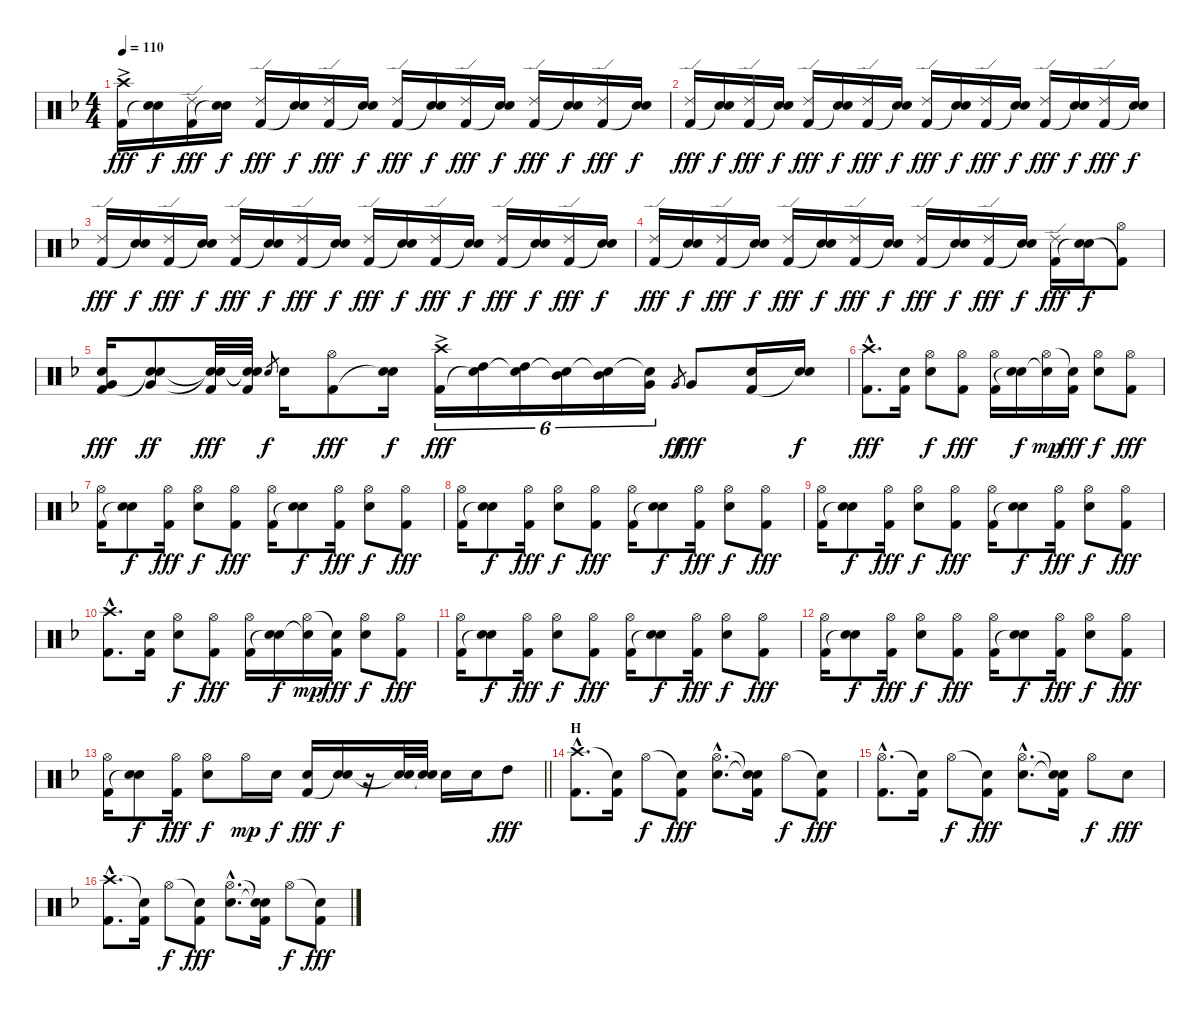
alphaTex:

\track "" {instrument percussion}
\staff {score}
\articulation defaults
\ts (4 4)
\tempo 110
\clef neutral
\ks dminor
("Crash high (hit)"{ac} "Kick (hit) 2").16{dy fff} ("Electric Snare (hit)" "Snare (hit)"{t}).16{dy f} ("Ride (edge) 2" "Kick (hit) 2").16{dy fff} ("Electric Snare (hit)" "Snare (hit)"{t}).16{dy f} ("Ride (edge) 2" "Kick (hit) 2").16{dy fff} ("Electric Snare (hit)" "Snare (hit)"{t}).16{dy f} ("Ride (edge) 2" "Kick (hit) 2").16{dy fff} ("Electric Snare (hit)" "Snare (hit)"{t}).16{dy f} ("Ride (edge) 2" "Kick (hit) 2").16{dy fff} ("Electric Snare (hit)" "Snare (hit)"{t}).16{dy f} ("Ride (edge) 2" "Kick (hit) 2").16{dy fff} ("Electric Snare (hit)" "Snare (hit)"{t}).16{dy f} ("Ride (edge) 2" "Kick (hit) 2").16{dy fff} ("Electric Snare (hit)" "Snare (hit)"{t}).16{dy f} ("Ride (edge) 2" "Kick (hit) 2").16{dy fff} ("Electric Snare (hit)" "Snare (hit)"{t}).16{dy f} |
("Ride (edge) 2" "Kick (hit) 2").16{dy fff} ("Electric Snare (hit)" "Snare (hit)"{t}).16{dy f} ("Ride (edge) 2" "Kick (hit) 2").16{dy fff} ("Electric Snare (hit)" "Snare (hit)"{t}).16{dy f} ("Ride (edge) 2" "Kick (hit) 2").16{dy fff} ("Electric Snare (hit)" "Snare (hit)"{t}).16{dy f} ("Ride (edge) 2" "Kick (hit) 2").16{dy fff} ("Electric Snare (hit)" "Snare (hit)"{t}).16{dy f} ("Ride (edge) 2" "Kick (hit) 2").16{dy fff} ("Electric Snare (hit)" "Snare (hit)"{t}).16{dy f} ("Ride (edge) 2" "Kick (hit) 2").16{dy fff} ("Electric Snare (hit)" "Snare (hit)"{t}).16{dy f} ("Ride (edge) 2" "Kick (hit) 2").16{dy fff} ("Electric Snare (hit)" "Snare (hit)"{t}).16{dy f} ("Ride (edge) 2" "Kick (hit) 2").16{dy fff} ("Electric Snare (hit)" "Snare (hit)"{t}).16{dy f} |
("Ride (edge) 2" "Kick (hit) 2").16{dy fff} ("Electric Snare (hit)" "Snare (hit)"{t}).16{dy f} ("Ride (edge) 2" "Kick (hit) 2").16{dy fff} ("Electric Snare (hit)" "Snare (hit)"{t}).16{dy f} ("Ride (edge) 2" "Kick (hit) 2").16{dy fff} ("Electric Snare (hit)" "Snare (hit)"{t}).16{dy f} ("Ride (edge) 2" "Kick (hit) 2").16{dy fff} ("Electric Snare (hit)" "Snare (hit)"{t}).16{dy f} ("Ride (edge) 2" "Kick (hit) 2").16{dy fff} ("Electric Snare (hit)" "Snare (hit)"{t}).16{dy f} ("Ride (edge) 2" "Kick (hit) 2").16{dy fff} ("Electric Snare (hit)" "Snare (hit)"{t}).16{dy f} ("Ride (edge) 2" "Kick (hit) 2").16{dy fff} ("Electric Snare (hit)" "Snare (hit)"{t}).16{dy f} ("Ride (edge) 2" "Kick (hit) 2").16{dy fff} ("Electric Snare (hit)" "Snare (hit)"{t}).16{dy f} |
("Ride (edge) 2" "Kick (hit) 2").16{dy fff} ("Electric Snare (hit)" "Snare (hit)"{t}).16{dy f} ("Ride (edge) 2" "Kick (hit) 2").16{dy fff} ("Electric Snare (hit)" "Snare (hit)"{t}).16{dy f} ("Ride (edge) 2" "Kick (hit) 2").16{dy fff} ("Electric Snare (hit)" "Snare (hit)"{t}).16{dy f} ("Ride (edge) 2" "Kick (hit) 2").16{dy fff} ("Electric Snare (hit)" "Snare (hit)"{t}).16{dy f} ("Ride (edge) 2" "Kick (hit) 2").16{dy fff} ("Electric Snare (hit)" "Snare (hit)"{t}).16{dy f} ("Ride (edge) 2" "Kick (hit) 2").16{dy fff} ("Electric Snare (hit)" "Snare (hit)"{t}).16{dy f} ("Ride (edge) 2" "Kick (hit) 2").16{dy fff} ("Electric Snare (hit)" "Snare (hit)"{t}).16{dy f} ("Hi-Hat (open)" "Kick (hit) 2"{t}).8 |
("Electric Snare (hit)" "Very Low Tom (hit)" "Kick (hit) 2").16{dy fff} ("Electric Snare (hit)" "Very Low Tom (hit)" "Snare (hit)"{t}).8{dy ff} ("Snare (hit)"{t} "Snare (hit)"{t} "Kick (hit) 2").32{dy fff} ("Snare (hit)"{t} "Snare (hit)"{t} "Kick (hit) 2").32 "Electric Snare (hit)".8{gr dy f} "Electric Snare (hit)".16 ("Hi-Hat (open)" "Kick (hit) 2").8{dy fff} ("Electric Snare (hit)" "Snare (hit)"{t}).16{dy f} ("Crash high (hit)"{ac} "Kick (hit) 2").16{tu (6 4) dy fff} ("High Tom (hit)" "Snare (hit)"{t}).16{tu (6 4)} ("High Tom (hit)" "Snare (hit)"{t}).16{tu (6 4)} ("Mid Tom (hit)" "Snare (hit)"{t}).16{tu (6 4)} ("Mid Tom (hit)" "Snare (hit)"{t}).16{tu (6 4)} ("Very Low Tom (hit)" "Snare (hit)"{t}).16{tu (6 4)} "Very Low Tom (hit)".8{gr dy ff} "Very Low Tom (hit)".8{dy fff} ("Electric Snare (hit)" "Kick (hit) 2").16 ("Electric Snare (hit)" "Snare (hit)"{t}).16{dy f} |
("Crash high (hit)"{hac} "Kick (hit) 2"{hac}).8{d dy fff} ("Electric Snare (hit)" "Kick (hit) 2").16 ("Hi-Hat (open)" "Electric Snare (hit)").8{dy f} ("Hi-Hat (open)" "Kick (hit) 2").8{dy fff} ("Hi-Hat (open)" "Kick (hit) 2").16 ("Electric Snare (hit)" "Snare (hit)"{t}).16{dy f} ("Hi-Hat (open)" "Snare (hit)"{t}).16{dy mp} ("Snare (hit)"{t} "Kick (hit) 2").16{dy fff} ("Hi-Hat (open)" "Electric Snare (hit)").8{dy f} ("Hi-Hat (open)" "Kick (hit) 2").8{dy fff} |
("Hi-Hat (open)" "Kick (hit) 2").16 ("Electric Snare (hit)" "Snare (hit)"{t}).8{dy f} ("Hi-Hat (open)" "Kick (hit) 2").16{dy fff} ("Hi-Hat (open)" "Electric Snare (hit)").8{dy f} ("Hi-Hat (open)" "Kick (hit) 2").8{dy fff} ("Hi-Hat (open)" "Kick (hit) 2").16 ("Electric Snare (hit)" "Snare (hit)"{t}).8{dy f} ("Hi-Hat (open)" "Kick (hit) 2").16{dy fff} ("Hi-Hat (open)" "Electric Snare (hit)").8{dy f} ("Hi-Hat (open)" "Kick (hit) 2").8{dy fff} |
("Hi-Hat (open)" "Kick (hit) 2").16 ("Electric Snare (hit)" "Snare (hit)"{t}).8{dy f} ("Hi-Hat (open)" "Kick (hit) 2").16{dy fff} ("Hi-Hat (open)" "Electric Snare (hit)").8{dy f} ("Hi-Hat (open)" "Kick (hit) 2").8{dy fff} ("Hi-Hat (open)" "Kick (hit) 2").16 ("Electric Snare (hit)" "Snare (hit)"{t}).8{dy f} ("Hi-Hat (open)" "Kick (hit) 2").16{dy fff} ("Hi-Hat (open)" "Electric Snare (hit)").8{dy f} ("Hi-Hat (open)" "Kick (hit) 2").8{dy fff} |
("Hi-Hat (open)" "Kick (hit) 2").16 ("Electric Snare (hit)" "Snare (hit)"{t}).8{dy f} ("Hi-Hat (open)" "Kick (hit) 2").16{dy fff} ("Hi-Hat (open)" "Electric Snare (hit)").8{dy f} ("Hi-Hat (open)" "Kick (hit) 2").8{dy fff} ("Hi-Hat (open)" "Kick (hit) 2").16 ("Electric Snare (hit)" "Snare (hit)"{t}).8{dy f} ("Hi-Hat (open)" "Kick (hit) 2").16{dy fff} ("Hi-Hat (open)" "Electric Snare (hit)").8{dy f} ("Hi-Hat (open)" "Kick (hit) 2").8{dy fff} |
("Crash high (hit)"{hac} "Kick (hit) 2"{hac}).8{d} ("Electric Snare (hit)" "Kick (hit) 2").16 ("Hi-Hat (open)" "Electric Snare (hit)").8{dy f} ("Hi-Hat (open)" "Kick (hit) 2").8{dy fff} ("Hi-Hat (open)" "Kick (hit) 2").16 ("Electric Snare (hit)" "Snare (hit)"{t}).16{dy f} ("Hi-Hat (open)" "Snare (hit)"{t}).16{dy mp} ("Snare (hit)"{t} "Kick (hit) 2").16{dy fff} ("Hi-Hat (open)" "Electric Snare (hit)").8{dy f} ("Hi-Hat (open)" "Kick (hit) 2").8{dy fff} |
("Hi-Hat (open)" "Kick (hit) 2").16 ("Electric Snare (hit)" "Snare (hit)"{t}).8{dy f} ("Hi-Hat (open)" "Kick (hit) 2").16{dy fff} ("Hi-Hat (open)" "Electric Snare (hit)").8{dy f} ("Hi-Hat (open)" "Kick (hit) 2").8{dy fff} ("Hi-Hat (open)" "Kick (hit) 2").16 ("Electric Snare (hit)" "Snare (hit)"{t}).8{dy f} ("Hi-Hat (open)" "Kick (hit) 2").16{dy fff} ("Hi-Hat (open)" "Electric Snare (hit)").8{dy f} ("Hi-Hat (open)" "Kick (hit) 2").8{dy fff} |
("Hi-Hat (open)" "Kick (hit) 2").16 ("Electric Snare (hit)" "Snare (hit)"{t}).8{dy f} ("Hi-Hat (open)" "Kick (hit) 2").16{dy fff} ("Hi-Hat (open)" "Electric Snare (hit)").8{dy f} ("Hi-Hat (open)" "Kick (hit) 2").8{dy fff} ("Hi-Hat (open)" "Kick (hit) 2").16 ("Electric Snare (hit)" "Snare (hit)"{t}).8{dy f} ("Hi-Hat (open)" "Kick (hit) 2").16{dy fff} ("Hi-Hat (open)" "Electric Snare (hit)").8{dy f} ("Hi-Hat (open)" "Kick (hit) 2").8{dy fff} |
\barLineRight lightlight
("Hi-Hat (open)" "Kick (hit) 2").16 ("Electric Snare (hit)" "Snare (hit)"{t}).8{dy f} ("Hi-Hat (open)" "Kick (hit) 2").16{dy fff} ("Hi-Hat (open)" "Electric Snare (hit)").8{dy f} "Hi-Hat (open)".16{dy mp} "Electric Snare (hit)".16{dy f} ("Electric Snare (hit)" "Kick (hit) 2").16{dy fff} ("Electric Snare (hit)" "Snare (hit)"{t}).16{dy f} r.16 ("Electric Snare (hit)" "Snare (hit)"{t}).32 ("Electric Snare (hit)" "Snare (hit)"{t}).32 "Electric Snare (hit)".16 "Electric Snare (hit)".16 "High Tom (hit)".8{dy fff} |
\section ("" "H")
("Crash high (hit)"{hac} "Kick (hit) 2"{hac}).8{d} ("Snare (hit)"{t} "Kick (hit) 2").16 "Hi-Hat (open)".8{dy f} ("Snare (hit)"{t} "Kick (hit) 2").8{dy fff} ("Hi-Hat (open)"{hac} "Electric Snare (hit)"{hac}).8{d} ("Snare (hit)"{t} "Snare (hit)"{t} "Kick (hit) 2").16 "Hi-Hat (open)".8{dy f} ("Snare (hit)"{t} "Kick (hit) 2").8{dy fff} |
("Hi-Hat (open)"{hac} "Kick (hit) 2"{hac}).8{d} ("Snare (hit)"{t} "Kick (hit) 2").16 "Hi-Hat (open)".8{dy f} ("Snare (hit)"{t} "Kick (hit) 2").8{dy fff} ("Hi-Hat (open)"{hac} "Electric Snare (hit)"{hac}).8{d} ("Snare (hit)"{t} "Snare (hit)"{t} "Kick (hit) 2").16 "Hi-Hat (open)".8{dy f} "Electric Snare (hit)".8{dy fff} |
("Crash high (hit)"{hac} "Kick (hit) 2"{hac}).8{d} ("Snare (hit)"{t} "Kick (hit) 2").16 "Hi-Hat (open)".8{dy f} ("Snare (hit)"{t} "Kick (hit) 2").8{dy fff} ("Hi-Hat (open)"{hac} "Electric Snare (hit)"{hac}).8{d} ("Snare (hit)"{t} "Snare (hit)"{t} "Kick (hit) 2").16 "Hi-Hat (open)".8{dy f} ("Snare (hit)"{t} "Kick (hit) 2").8{dy fff}
